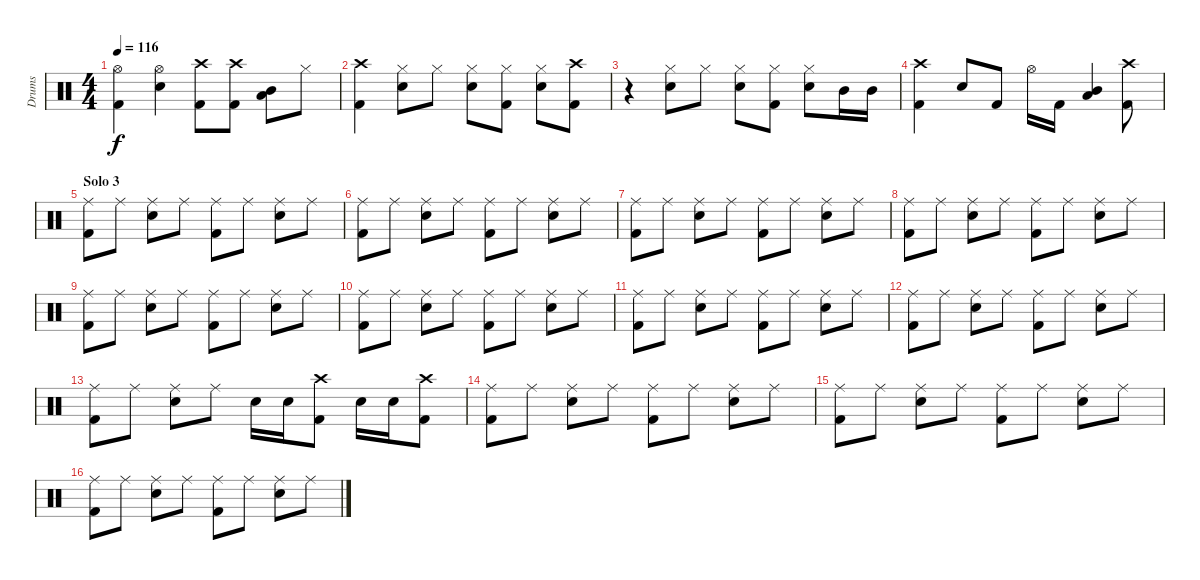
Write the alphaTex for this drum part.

\track ("Drums" "Drums") {instrument percussion}
\staff {score}
\articulation defaults
\ts (4 4)
\tempo 116
\clef neutral
\ks c
("Hi-Hat (open)" "Kick (hit) 2").4{dy f} ("Hi-Hat (open)" "Snare (hit) 2").4 ("Crash high (hit)" "Kick (hit) 2").8 ("Crash high (hit)" "Kick (hit) 2").8 ("Low Tom (hit)" "Mid Tom (hit)").8 "Hi-Hat (closed)".8 |
("Crash high (hit)" "Kick (hit) 2").4 ("Hi-Hat (closed)" "Snare (hit) 2").8 "Hi-Hat (closed)".8 ("Hi-Hat (closed)" "Snare (hit) 2").8 ("Hi-Hat (closed)" "Kick (hit) 2").8 ("Hi-Hat (closed)" "Snare (hit) 2").8 ("Crash high (hit)" "Kick (hit) 2").8 |
r.4 ("Hi-Hat (closed)" "Snare (hit) 2").8 "Hi-Hat (closed)".8 ("Hi-Hat (closed)" "Snare (hit) 2").8 ("Hi-Hat (closed)" "Kick (hit) 2").8 ("Hi-Hat (closed)" "Snare (hit) 2").8 "Mid Tom (hit)".16 "Mid Tom (hit)".16 |
("Crash high (hit)" "Kick (hit) 2").4 "Snare (hit) 2".8 "Kick (hit) 2".8 "Hi-Hat (open)".16 "Kick (hit) 2".16 ("Low Tom (hit)" "Mid Tom (hit)").4 ("Crash high (hit)" "Kick (hit) 2").8 |
\section ("" "Solo 3")
("Ride (middle)" "Kick (hit) 2").8 "Ride (middle)".8 ("Ride (middle)" "Snare (hit) 2").8 "Ride (middle)".8 ("Ride (middle)" "Kick (hit) 2").8 "Ride (middle)".8 ("Ride (middle)" "Snare (hit) 2").8 "Ride (middle)".8 |
("Ride (middle)" "Kick (hit) 2").8 "Ride (middle)".8 ("Ride (middle)" "Snare (hit) 2").8 "Ride (middle)".8 ("Ride (middle)" "Kick (hit) 2").8 "Ride (middle)".8 ("Ride (middle)" "Snare (hit) 2").8 "Ride (middle)".8 |
("Ride (middle)" "Kick (hit) 2").8 "Ride (middle)".8 ("Ride (middle)" "Snare (hit) 2").8 "Ride (middle)".8 ("Ride (middle)" "Kick (hit) 2").8 "Ride (middle)".8 ("Ride (middle)" "Snare (hit) 2").8 "Ride (middle)".8 |
("Ride (middle)" "Kick (hit) 2").8 "Ride (middle)".8 ("Ride (middle)" "Snare (hit) 2").8 "Ride (middle)".8 ("Ride (middle)" "Kick (hit) 2").8 "Ride (middle)".8 ("Ride (middle)" "Snare (hit) 2").8 "Ride (middle)".8 |
("Ride (middle)" "Kick (hit) 2").8 "Ride (middle)".8 ("Ride (middle)" "Snare (hit) 2").8 "Ride (middle)".8 ("Ride (middle)" "Kick (hit) 2").8 "Ride (middle)".8 ("Ride (middle)" "Snare (hit) 2").8 "Ride (middle)".8 |
("Ride (middle)" "Kick (hit) 2").8 "Ride (middle)".8 ("Ride (middle)" "Snare (hit) 2").8 "Ride (middle)".8 ("Ride (middle)" "Kick (hit) 2").8 "Ride (middle)".8 ("Ride (middle)" "Snare (hit) 2").8 "Ride (middle)".8 |
("Ride (middle)" "Kick (hit) 2").8 "Ride (middle)".8 ("Ride (middle)" "Snare (hit) 2").8 "Ride (middle)".8 ("Ride (middle)" "Kick (hit) 2").8 "Ride (middle)".8 ("Ride (middle)" "Snare (hit) 2").8 "Ride (middle)".8 |
("Ride (middle)" "Kick (hit) 2").8 "Ride (middle)".8 ("Ride (middle)" "Snare (hit) 2").8 "Ride (middle)".8 ("Ride (middle)" "Kick (hit) 2").8 "Ride (middle)".8 ("Ride (middle)" "Snare (hit) 2").8 "Ride (middle)".8 |
("Ride (middle)" "Kick (hit) 2").8 "Ride (middle)".8 ("Ride (middle)" "Snare (hit) 2").8 "Ride (middle)".8 "Snare (hit) 2".16 "Snare (hit) 2".16 ("Crash high (hit)" "Kick (hit) 2").8 "Snare (hit) 2".16 "Snare (hit) 2".16 ("Crash high (hit)" "Kick (hit) 2").8 |
("Ride (middle)" "Kick (hit) 2").8 "Ride (middle)".8 ("Ride (middle)" "Snare (hit) 2").8 "Ride (middle)".8 ("Ride (middle)" "Kick (hit) 2").8 "Ride (middle)".8 ("Ride (middle)" "Snare (hit) 2").8 "Ride (middle)".8 |
("Ride (middle)" "Kick (hit) 2").8 "Ride (middle)".8 ("Ride (middle)" "Snare (hit) 2").8 "Ride (middle)".8 ("Ride (middle)" "Kick (hit) 2").8 "Ride (middle)".8 ("Ride (middle)" "Snare (hit) 2").8 "Ride (middle)".8 |
("Ride (middle)" "Kick (hit) 2").8 "Ride (middle)".8 ("Ride (middle)" "Snare (hit) 2").8 "Ride (middle)".8 ("Ride (middle)" "Kick (hit) 2").8 "Ride (middle)".8 ("Ride (middle)" "Snare (hit) 2").8 "Ride (middle)".8
